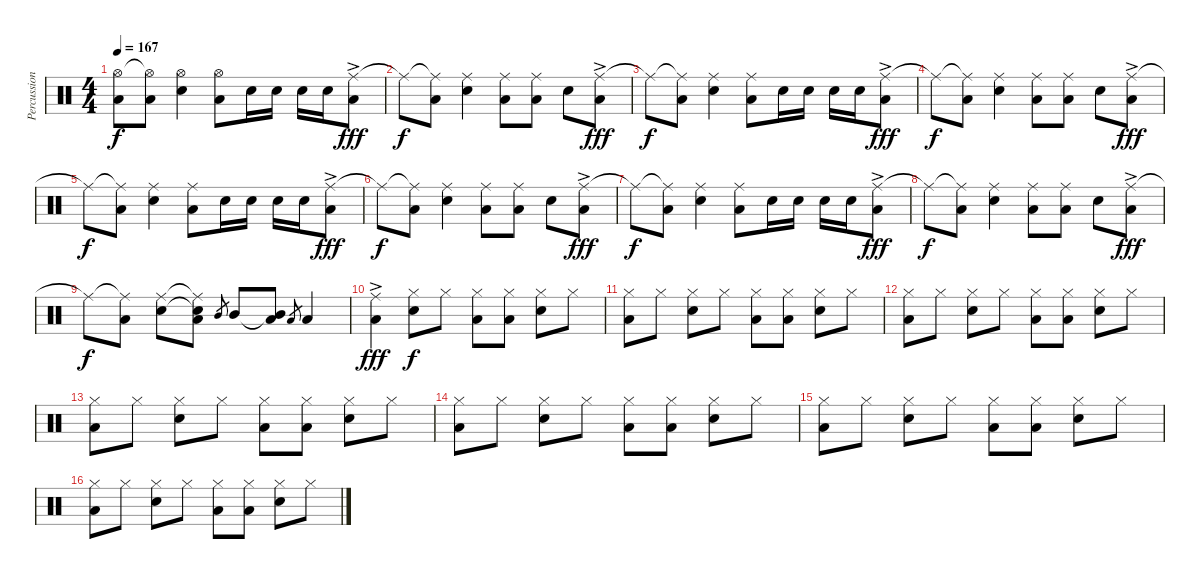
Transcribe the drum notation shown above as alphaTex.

\track ("Percussion" "Percussion") {instrument percussion}
\staff {score}
\articulation defaults
\ts (4 4)
\tempo 167
\clef neutral
\ks c
("Hi-Hat (open)" "Low Floor Tom (hit)").8{dy f} ("Hi-Hat (open)"{t} "Low Floor Tom (hit)").8 ("Hi-Hat (open)" "Snare (hit) 2").4 ("Hi-Hat (open)" "Low Floor Tom (hit)").8 "Snare (hit) 2".16 "Snare (hit) 2".16 "Snare (hit) 2".16 "Snare (hit) 2".16 ("Ride (middle)"{ac} "Low Floor Tom (hit)").8{dy fff} |
"Ride (middle)"{t}.8{dy f} ("Ride (middle)"{t} "Low Floor Tom (hit)").8 ("Ride (middle)" "Snare (hit) 2").4 ("Ride (middle)" "Low Floor Tom (hit)").8 ("Ride (middle)" "Low Floor Tom (hit)").8 "Snare (hit) 2".8 ("Ride (middle)"{ac} "Low Floor Tom (hit)").8{dy fff} |
"Ride (middle)"{t}.8{dy f} ("Ride (middle)"{t} "Low Floor Tom (hit)").8 ("Ride (middle)" "Snare (hit) 2").4 ("Ride (middle)" "Low Floor Tom (hit)").8 "Snare (hit) 2".16 "Snare (hit) 2".16 "Snare (hit) 2".16 "Snare (hit) 2".16 ("Ride (middle)"{ac} "Low Floor Tom (hit)").8{dy fff} |
"Ride (middle)"{t}.8{dy f} ("Ride (middle)"{t} "Low Floor Tom (hit)").8 ("Ride (middle)" "Snare (hit) 2").4 ("Ride (middle)" "Low Floor Tom (hit)").8 ("Ride (middle)" "Low Floor Tom (hit)").8 "Snare (hit) 2".8 ("Ride (middle)"{ac} "Low Floor Tom (hit)").8{dy fff} |
"Ride (middle)"{t}.8{dy f} ("Ride (middle)"{t} "Low Floor Tom (hit)").8 ("Ride (middle)" "Snare (hit) 2").4 ("Ride (middle)" "Low Floor Tom (hit)").8 "Snare (hit) 2".16 "Snare (hit) 2".16 "Snare (hit) 2".16 "Snare (hit) 2".16 ("Ride (middle)"{ac} "Low Floor Tom (hit)").8{dy fff} |
"Ride (middle)"{t}.8{dy f} ("Ride (middle)"{t} "Low Floor Tom (hit)").8 ("Ride (middle)" "Snare (hit) 2").4 ("Ride (middle)" "Low Floor Tom (hit)").8 ("Ride (middle)" "Low Floor Tom (hit)").8 "Snare (hit) 2".8 ("Ride (middle)"{ac} "Low Floor Tom (hit)").8{dy fff} |
"Ride (middle)"{t}.8{dy f} ("Ride (middle)"{t} "Low Floor Tom (hit)").8 ("Ride (middle)" "Snare (hit) 2").4 ("Ride (middle)" "Low Floor Tom (hit)").8 "Snare (hit) 2".16 "Snare (hit) 2".16 "Snare (hit) 2".16 "Snare (hit) 2".16 ("Ride (middle)"{ac} "Low Floor Tom (hit)").8{dy fff} |
"Ride (middle)"{t}.8{dy f} ("Ride (middle)"{t} "Low Floor Tom (hit)").8 ("Ride (middle)" "Snare (hit) 2").4 ("Ride (middle)" "Low Floor Tom (hit)").8 ("Ride (middle)" "Low Floor Tom (hit)").8 "Snare (hit) 2".8 ("Ride (middle)"{ac} "Low Floor Tom (hit)").8{dy fff} |
"Ride (middle)"{t}.8{dy f} ("Ride (middle)"{t} "Low Floor Tom (hit)").8 ("Ride (middle)" "Snare (hit) 2").8 ("Ride (middle)"{t} "Snare (hit) 2"{t} "Low Floor Tom (hit)").8 "Mid Tom (hit)".8{gr} "Mid Tom (hit)".8 ("Mid Tom (hit)"{t} "Low Floor Tom (hit)").8 "Low Tom (hit)".8{gr} "Low Tom (hit)".4 |
("Ride (middle)"{ac} "Low Floor Tom (hit)").4{dy fff} ("Hi-Hat (closed)" "Snare (hit) 2").8{dy f} "Hi-Hat (closed)".8 ("Hi-Hat (closed)" "Low Floor Tom (hit)").8 ("Hi-Hat (closed)" "Low Floor Tom (hit)").8 ("Hi-Hat (closed)" "Snare (hit) 2").8 "Hi-Hat (closed)".8 |
("Hi-Hat (closed)" "Low Floor Tom (hit)").8 "Hi-Hat (closed)".8 ("Hi-Hat (closed)" "Snare (hit) 2").8 "Hi-Hat (closed)".8 ("Hi-Hat (closed)" "Low Floor Tom (hit)").8 ("Hi-Hat (closed)" "Low Floor Tom (hit)").8 ("Hi-Hat (closed)" "Snare (hit) 2").8 "Hi-Hat (closed)".8 |
("Hi-Hat (closed)" "Low Floor Tom (hit)").8 "Hi-Hat (closed)".8 ("Hi-Hat (closed)" "Snare (hit) 2").8 "Hi-Hat (closed)".8 ("Hi-Hat (closed)" "Low Floor Tom (hit)").8 ("Hi-Hat (closed)" "Low Floor Tom (hit)").8 ("Hi-Hat (closed)" "Snare (hit) 2").8 "Hi-Hat (closed)".8 |
("Hi-Hat (closed)" "Low Floor Tom (hit)").8 "Hi-Hat (closed)".8 ("Hi-Hat (closed)" "Snare (hit) 2").8 "Hi-Hat (closed)".8 ("Hi-Hat (closed)" "Low Floor Tom (hit)").8 ("Hi-Hat (closed)" "Low Floor Tom (hit)").8 ("Hi-Hat (closed)" "Snare (hit) 2").8 "Hi-Hat (closed)".8 |
("Hi-Hat (closed)" "Low Floor Tom (hit)").8 "Hi-Hat (closed)".8 ("Hi-Hat (closed)" "Snare (hit) 2").8 "Hi-Hat (closed)".8 ("Hi-Hat (closed)" "Low Floor Tom (hit)").8 ("Hi-Hat (closed)" "Low Floor Tom (hit)").8 ("Hi-Hat (closed)" "Snare (hit) 2").8 "Hi-Hat (closed)".8 |
("Hi-Hat (closed)" "Low Floor Tom (hit)").8 "Hi-Hat (closed)".8 ("Hi-Hat (closed)" "Snare (hit) 2").8 "Hi-Hat (closed)".8 ("Hi-Hat (closed)" "Low Floor Tom (hit)").8 ("Hi-Hat (closed)" "Low Floor Tom (hit)").8 ("Hi-Hat (closed)" "Snare (hit) 2").8 "Hi-Hat (closed)".8 |
("Hi-Hat (closed)" "Low Floor Tom (hit)").8 "Hi-Hat (closed)".8 ("Hi-Hat (closed)" "Snare (hit) 2").8 "Hi-Hat (closed)".8 ("Hi-Hat (closed)" "Low Floor Tom (hit)").8 ("Hi-Hat (closed)" "Low Floor Tom (hit)").8 ("Hi-Hat (closed)" "Snare (hit) 2").8 "Hi-Hat (closed)".8
